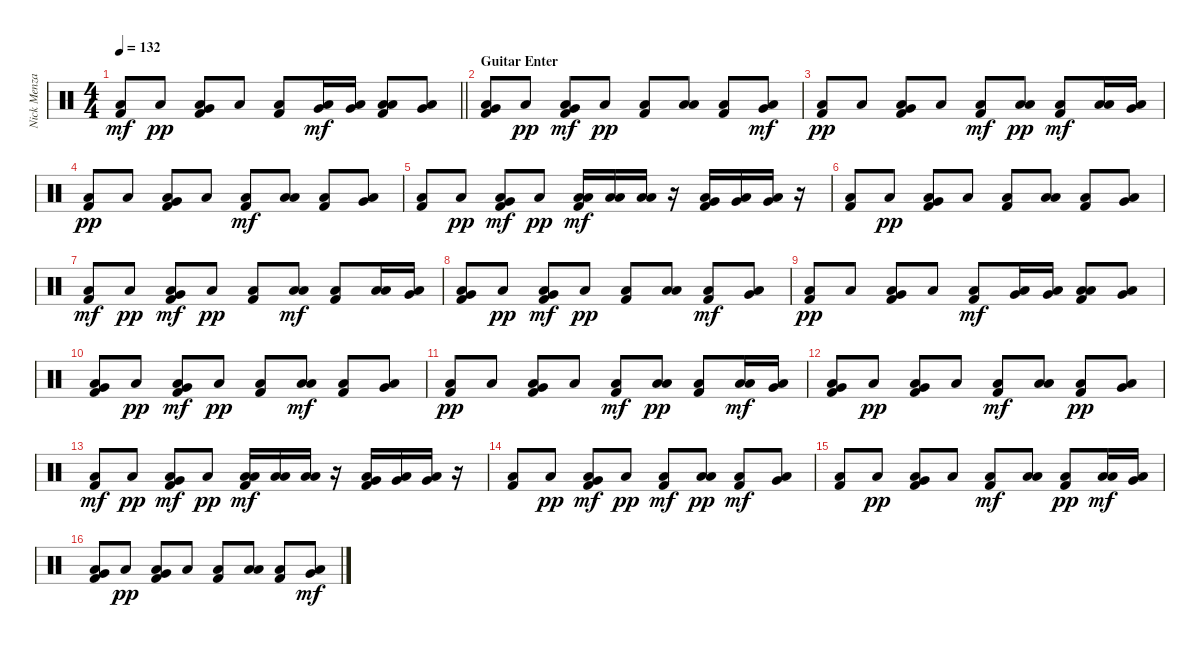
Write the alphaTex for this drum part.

\track ("Nick Menza (Drums)" "Nick Menza") {instrument percussion}
\staff {score}
\articulation defaults
\ts (4 4)
\tempo 132
\clef neutral
\barLineRight lightlight
\ks c
("Low Floor Tom (hit)" "Kick (hit) 2").8{dy mf} "Low Floor Tom (hit)".8{dy pp} ("Kick (hit) 2" "Very Low Tom (hit)" "Low Floor Tom (hit)").8 "Low Floor Tom (hit)".8 ("Kick (hit) 2" "Low Floor Tom (hit)").8 ("Very Low Tom (hit)" "Low Floor Tom (hit)").16{dy mf} ("Very Low Tom (hit)" "Low Floor Tom (hit)").16 ("Low Tom (hit)" "Kick (hit) 2" "Low Floor Tom (hit)").8 ("Low Floor Tom (hit)" "Very Low Tom (hit)").8 |
\section ("" "Guitar Enter")
("Very Low Tom (hit)" "Low Floor Tom (hit)" "Kick (hit) 2").8 "Low Floor Tom (hit)".8{dy pp} ("Low Floor Tom (hit)" "Kick (hit) 2" "Very Low Tom (hit)").8{dy mf} "Low Floor Tom (hit)".8{dy pp} ("Kick (hit) 2" "Low Floor Tom (hit)").8 ("Low Tom (hit)" "Low Floor Tom (hit)").8 ("Kick (hit) 2" "Low Floor Tom (hit)").8 ("Low Floor Tom (hit)" "Very Low Tom (hit)").8{dy mf} |
("Kick (hit) 2" "Low Floor Tom (hit)").8{dy pp} "Low Floor Tom (hit)".8 ("Kick (hit) 2" "Very Low Tom (hit)" "Low Floor Tom (hit)").8 "Low Floor Tom (hit)".8 ("Low Floor Tom (hit)" "Kick (hit) 2").8{dy mf} ("Low Tom (hit)" "Low Floor Tom (hit)").8{dy pp} ("Low Floor Tom (hit)" "Kick (hit) 2").8{dy mf} ("Low Tom (hit)" "Low Floor Tom (hit)").16 ("Very Low Tom (hit)" "Low Floor Tom (hit)").16 |
("Kick (hit) 2" "Low Floor Tom (hit)").8{dy pp} "Low Floor Tom (hit)".8 ("Kick (hit) 2" "Very Low Tom (hit)" "Low Floor Tom (hit)").8 "Low Floor Tom (hit)".8 ("Low Floor Tom (hit)" "Kick (hit) 2").8{dy mf} ("Low Floor Tom (hit)" "Low Tom (hit)").8 ("Low Floor Tom (hit)" "Kick (hit) 2").8 ("Low Floor Tom (hit)" "Very Low Tom (hit)").8 |
("Low Floor Tom (hit)" "Kick (hit) 2").8 "Low Floor Tom (hit)".8{dy pp} ("Low Floor Tom (hit)" "Kick (hit) 2" "Very Low Tom (hit)").8{dy mf} "Low Floor Tom (hit)".8{dy pp} ("Kick (hit) 2" "Low Floor Tom (hit)" "Low Tom (hit)").16{dy mf} ("Low Tom (hit)" "Low Floor Tom (hit)").16 ("Low Floor Tom (hit)" "Low Tom (hit)").16 r.16 ("Very Low Tom (hit)" "Kick (hit) 2" "Low Floor Tom (hit)").16 ("Very Low Tom (hit)" "Low Floor Tom (hit)").16 ("Very Low Tom (hit)" "Low Floor Tom (hit)").16 r.16 |
("Low Floor Tom (hit)" "Kick (hit) 2").8 "Low Floor Tom (hit)".8{dy pp} ("Kick (hit) 2" "Very Low Tom (hit)" "Low Floor Tom (hit)").8 "Low Floor Tom (hit)".8 ("Kick (hit) 2" "Low Floor Tom (hit)").8 ("Low Tom (hit)" "Low Floor Tom (hit)").8 ("Kick (hit) 2" "Low Floor Tom (hit)").8 ("Very Low Tom (hit)" "Low Floor Tom (hit)").8 |
("Low Floor Tom (hit)" "Kick (hit) 2").8{dy mf} "Low Floor Tom (hit)".8{dy pp} ("Very Low Tom (hit)" "Low Floor Tom (hit)" "Kick (hit) 2").8{dy mf} "Low Floor Tom (hit)".8{dy pp} ("Kick (hit) 2" "Low Floor Tom (hit)").8 ("Low Floor Tom (hit)" "Low Tom (hit)").8{dy mf} ("Low Floor Tom (hit)" "Kick (hit) 2").8 ("Low Tom (hit)" "Low Floor Tom (hit)").16 ("Very Low Tom (hit)" "Low Floor Tom (hit)").16 |
("Very Low Tom (hit)" "Low Floor Tom (hit)" "Kick (hit) 2").8 "Low Floor Tom (hit)".8{dy pp} ("Kick (hit) 2" "Low Floor Tom (hit)" "Very Low Tom (hit)").8{dy mf} "Low Floor Tom (hit)".8{dy pp} ("Kick (hit) 2" "Low Floor Tom (hit)").8 ("Low Tom (hit)" "Low Floor Tom (hit)").8 ("Low Floor Tom (hit)" "Kick (hit) 2").8{dy mf} ("Low Floor Tom (hit)" "Very Low Tom (hit)").8 |
("Kick (hit) 2" "Low Floor Tom (hit)").8{dy pp} "Low Floor Tom (hit)".8 ("Very Low Tom (hit)" "Kick (hit) 2" "Low Floor Tom (hit)").8 "Low Floor Tom (hit)".8 ("Low Floor Tom (hit)" "Kick (hit) 2").8{dy mf} ("Low Floor Tom (hit)" "Very Low Tom (hit)").16 ("Low Floor Tom (hit)" "Very Low Tom (hit)").16 ("Low Floor Tom (hit)" "Kick (hit) 2" "Low Tom (hit)").8 ("Low Floor Tom (hit)" "Very Low Tom (hit)").8 |
("Very Low Tom (hit)" "Low Floor Tom (hit)" "Kick (hit) 2").8 "Low Floor Tom (hit)".8{dy pp} ("Low Floor Tom (hit)" "Kick (hit) 2" "Very Low Tom (hit)").8{dy mf} "Low Floor Tom (hit)".8{dy pp} ("Kick (hit) 2" "Low Floor Tom (hit)").8 ("Low Floor Tom (hit)" "Low Tom (hit)").8{dy mf} ("Low Floor Tom (hit)" "Kick (hit) 2").8 ("Low Floor Tom (hit)" "Very Low Tom (hit)").8 |
("Kick (hit) 2" "Low Floor Tom (hit)").8{dy pp} "Low Floor Tom (hit)".8 ("Kick (hit) 2" "Very Low Tom (hit)" "Low Floor Tom (hit)").8 "Low Floor Tom (hit)".8 ("Low Floor Tom (hit)" "Kick (hit) 2").8{dy mf} ("Low Tom (hit)" "Low Floor Tom (hit)").8{dy pp} ("Kick (hit) 2" "Low Floor Tom (hit)").8 ("Low Tom (hit)" "Low Floor Tom (hit)").16{dy mf} ("Low Floor Tom (hit)" "Very Low Tom (hit)").16 |
("Very Low Tom (hit)" "Low Floor Tom (hit)" "Kick (hit) 2").8 "Low Floor Tom (hit)".8{dy pp} ("Kick (hit) 2" "Very Low Tom (hit)" "Low Floor Tom (hit)").8 "Low Floor Tom (hit)".8 ("Low Floor Tom (hit)" "Kick (hit) 2").8{dy mf} ("Low Floor Tom (hit)" "Low Tom (hit)").8 ("Kick (hit) 2" "Low Floor Tom (hit)").8{dy pp} ("Very Low Tom (hit)" "Low Floor Tom (hit)").8 |
("Low Floor Tom (hit)" "Kick (hit) 2").8{dy mf} "Low Floor Tom (hit)".8{dy pp} ("Low Floor Tom (hit)" "Kick (hit) 2" "Very Low Tom (hit)").8{dy mf} "Low Floor Tom (hit)".8{dy pp} ("Low Tom (hit)" "Low Floor Tom (hit)" "Kick (hit) 2").16{dy mf} ("Low Tom (hit)" "Low Floor Tom (hit)").16 ("Low Tom (hit)" "Low Floor Tom (hit)").16 r.16 ("Very Low Tom (hit)" "Low Floor Tom (hit)" "Kick (hit) 2").16 ("Very Low Tom (hit)" "Low Floor Tom (hit)").16 ("Low Floor Tom (hit)" "Very Low Tom (hit)").16 r.16 |
("Low Floor Tom (hit)" "Kick (hit) 2").8 "Low Floor Tom (hit)".8{dy pp} ("Low Floor Tom (hit)" "Kick (hit) 2" "Very Low Tom (hit)").8{dy mf} "Low Floor Tom (hit)".8{dy pp} ("Low Floor Tom (hit)" "Kick (hit) 2").8{dy mf} ("Low Tom (hit)" "Low Floor Tom (hit)").8{dy pp} ("Low Floor Tom (hit)" "Kick (hit) 2").8{dy mf} ("Low Floor Tom (hit)" "Very Low Tom (hit)").8 |
("Low Floor Tom (hit)" "Kick (hit) 2").8 "Low Floor Tom (hit)".8{dy pp} ("Very Low Tom (hit)" "Kick (hit) 2" "Low Floor Tom (hit)").8 "Low Floor Tom (hit)".8 ("Low Floor Tom (hit)" "Kick (hit) 2").8{dy mf} ("Low Floor Tom (hit)" "Low Tom (hit)").8 ("Kick (hit) 2" "Low Floor Tom (hit)").8{dy pp} ("Low Tom (hit)" "Low Floor Tom (hit)").16{dy mf} ("Very Low Tom (hit)" "Low Floor Tom (hit)").16 |
("Very Low Tom (hit)" "Kick (hit) 2" "Low Floor Tom (hit)").8 "Low Floor Tom (hit)".8{dy pp} ("Very Low Tom (hit)" "Kick (hit) 2" "Low Floor Tom (hit)").8 "Low Floor Tom (hit)".8 ("Kick (hit) 2" "Low Floor Tom (hit)").8 ("Low Tom (hit)" "Low Floor Tom (hit)").8 ("Kick (hit) 2" "Low Floor Tom (hit)").8 ("Low Floor Tom (hit)" "Very Low Tom (hit)").8{dy mf}
